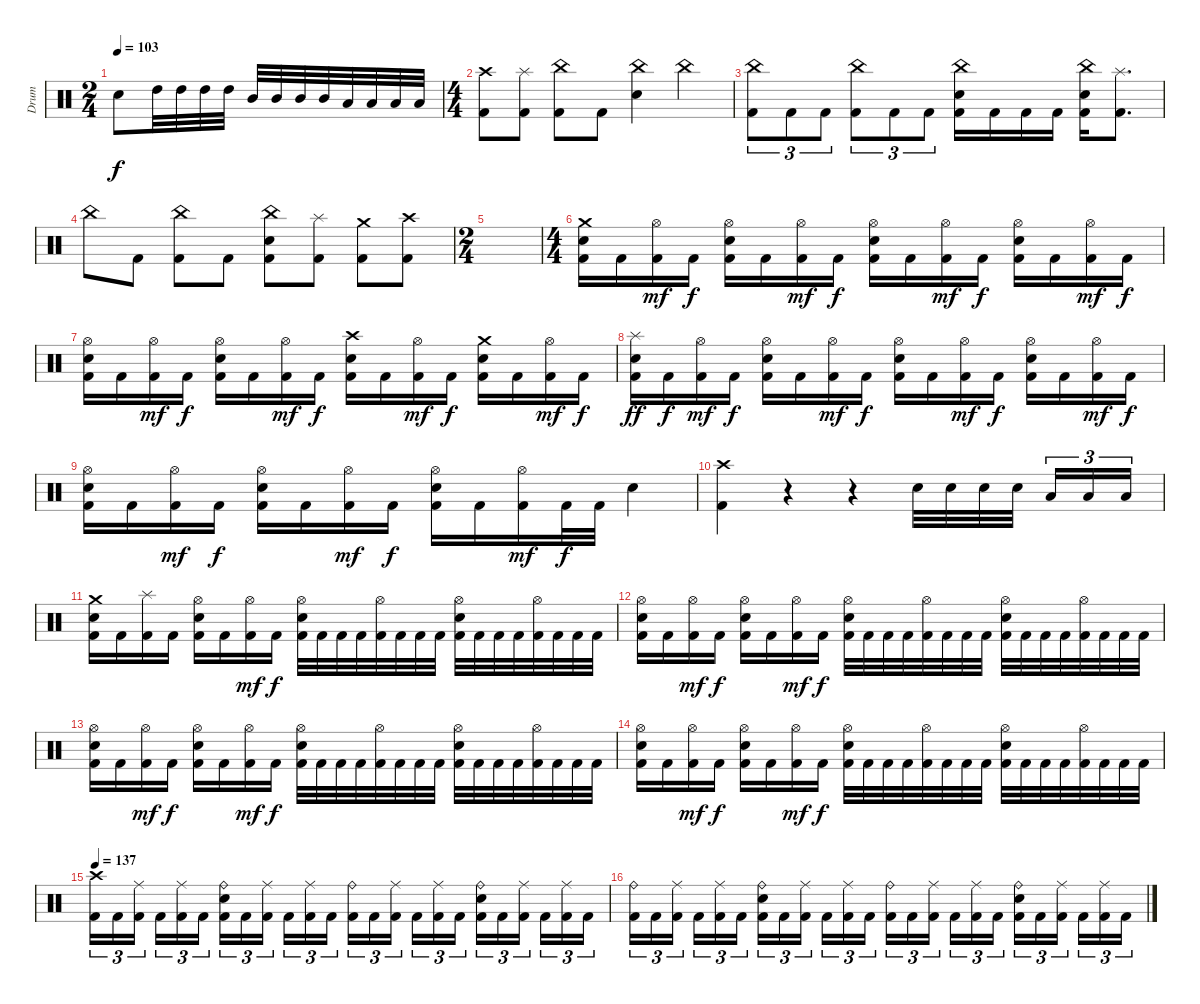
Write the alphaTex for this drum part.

\track ("Drum" "Drum") {instrument percussion}
\staff {score}
\articulation defaults
\ts (2 4)
\tempo 103
\clef neutral
\ks c "Electric Snare (hit)".8{dy f} "High Tom (hit)".32 "High Tom (hit)".32 "High Tom (hit)".32 "High Tom (hit)".32 "Mid Tom (hit)".32 "Mid Tom (hit)".32 "Mid Tom (hit)".32 "Mid Tom (hit)".32 "Low Tom (hit)".32 "Low Tom (hit)".32 "Low Tom (hit)".32 "Low Tom (hit)".32
|
\ts (4 4)
("Crash high (hit)" "Kick (hit) 2").8 ("Splash (hit)" "Kick (hit) 2").8 ("China (hit)" "Kick (hit) 2").8 "Kick (hit) 2".8 ("China (hit)" "Electric Snare (hit)").4 "China (hit)".4 |
("China (hit)" "Kick (hit) 2").8{tu (3 2)} "Kick (hit) 2".8{tu (3 2)} "Kick (hit) 2".8{tu (3 2)} ("China (hit)" "Kick (hit) 2").8{tu (3 2)} "Kick (hit) 2".8{tu (3 2)} "Kick (hit) 2".8{tu (3 2)} ("China (hit)" "Electric Snare (hit)" "Kick (hit) 2").16 "Kick (hit) 2".16 "Kick (hit) 2".16 "Kick (hit) 2".16 ("China (hit)" "Electric Snare (hit)" "Kick (hit) 2").16 ("Splash (hit)" "Kick (hit) 2").8{d} |
"China (hit)".8 "Kick (hit) 2".8 ("China (hit)" "Kick (hit) 2").8 "Kick (hit) 2".8 ("China (hit)" "Electric Snare (hit)" "Kick (hit) 2").8 ("Splash (hit)" "Kick (hit) 2").8 ("Crash medium (hit)" "Kick (hit) 2").8 ("Crash high (hit)" "Kick (hit) 2").8 |
\ts (2 4)
|
\ts (4 4)
("Crash medium (hit)" "Electric Snare (hit)" "Kick (hit) 2").16 "Kick (hit) 2".16 ("Hi-Hat (open)" "Kick (hit) 2").16{dy mf} "Kick (hit) 2".16{dy f} ("Hi-Hat (open)" "Electric Snare (hit)" "Kick (hit) 2").16 "Kick (hit) 2".16 ("Hi-Hat (open)" "Kick (hit) 2").16{dy mf} "Kick (hit) 2".16{dy f} ("Hi-Hat (open)" "Electric Snare (hit)" "Kick (hit) 2").16 "Kick (hit) 2".16 ("Hi-Hat (open)" "Kick (hit) 2").16{dy mf} "Kick (hit) 2".16{dy f} ("Hi-Hat (open)" "Electric Snare (hit)" "Kick (hit) 2").16 "Kick (hit) 2".16 ("Hi-Hat (open)" "Kick (hit) 2").16{dy mf} "Kick (hit) 2".16{dy f} |
("Hi-Hat (open)" "Electric Snare (hit)" "Kick (hit) 2").16 "Kick (hit) 2".16 ("Hi-Hat (open)" "Kick (hit) 2").16{dy mf} "Kick (hit) 2".16{dy f} ("Hi-Hat (open)" "Electric Snare (hit)" "Kick (hit) 2").16 "Kick (hit) 2".16 ("Hi-Hat (open)" "Kick (hit) 2").16{dy mf} "Kick (hit) 2".16{dy f} ("Crash high (hit)" "Electric Snare (hit)" "Kick (hit) 2").16 "Kick (hit) 2".16 ("Hi-Hat (open)" "Kick (hit) 2").16{dy mf} "Kick (hit) 2".16{dy f} ("Crash medium (hit)" "Electric Snare (hit)" "Kick (hit) 2").16 "Kick (hit) 2".16 ("Hi-Hat (open)" "Kick (hit) 2").16{dy mf} "Kick (hit) 2".16{dy f} |
("Splash (hit)" "Electric Snare (hit)" "Kick (hit) 2").16{dy ff} "Kick (hit) 2".16{dy f} ("Hi-Hat (open)" "Kick (hit) 2").16{dy mf} "Kick (hit) 2".16{dy f} ("Hi-Hat (open)" "Electric Snare (hit)" "Kick (hit) 2").16 "Kick (hit) 2".16 ("Hi-Hat (open)" "Kick (hit) 2").16{dy mf} "Kick (hit) 2".16{dy f} ("Hi-Hat (open)" "Electric Snare (hit)" "Kick (hit) 2").16 "Kick (hit) 2".16 ("Hi-Hat (open)" "Kick (hit) 2").16{dy mf} "Kick (hit) 2".16{dy f} ("Hi-Hat (open)" "Electric Snare (hit)" "Kick (hit) 2").16 "Kick (hit) 2".16 ("Hi-Hat (open)" "Kick (hit) 2").16{dy mf} "Kick (hit) 2".16{dy f} |
("Hi-Hat (open)" "Electric Snare (hit)" "Kick (hit) 2").16 "Kick (hit) 2".16 ("Hi-Hat (open)" "Kick (hit) 2").16{dy mf} "Kick (hit) 2".16{dy f} ("Hi-Hat (open)" "Electric Snare (hit)" "Kick (hit) 2").16 "Kick (hit) 2".16 ("Hi-Hat (open)" "Kick (hit) 2").16{dy mf} "Kick (hit) 2".16{dy f} ("Hi-Hat (open)" "Electric Snare (hit)" "Kick (hit) 2").16 "Kick (hit) 2".16 ("Hi-Hat (open)" "Kick (hit) 2").16{dy mf} "Kick (hit) 2".32{dy f} "Kick (hit) 2".32 "Electric Snare (hit)".4 |
("Crash high (hit)" "Kick (hit) 2").4 r.4 r.4 "Electric Snare (hit)".32 "Electric Snare (hit)".32 "Electric Snare (hit)".32 "Electric Snare (hit)".32{beam splitsecondary} "Low Floor Tom (hit)".16{tu (3 2)} "Low Floor Tom (hit)".16{tu (3 2)} "Low Floor Tom (hit)".16{tu (3 2)} |
("Crash medium (hit)" "Electric Snare (hit)" "Kick (hit) 2").16 "Kick (hit) 2".16 ("Splash (hit)" "Kick (hit) 2").16 "Kick (hit) 2".16 ("Hi-Hat (open)" "Electric Snare (hit)" "Kick (hit) 2").16 "Kick (hit) 2".16 ("Hi-Hat (open)" "Kick (hit) 2").16{dy mf} "Kick (hit) 2".16{dy f} ("Hi-Hat (open)" "Electric Snare (hit)" "Kick (hit) 2").32 "Kick (hit) 2".32 "Kick (hit) 2".32 "Kick (hit) 2".32 ("Hi-Hat (open)" "Kick (hit) 2").32 "Kick (hit) 2".32 "Kick (hit) 2".32 "Kick (hit) 2".32 ("Hi-Hat (open)" "Electric Snare (hit)" "Kick (hit) 2").32 "Kick (hit) 2".32 "Kick (hit) 2".32 "Kick (hit) 2".32 ("Hi-Hat (open)" "Kick (hit) 2").32 "Kick (hit) 2".32 "Kick (hit) 2".32 "Kick (hit) 2".32 |
("Hi-Hat (open)" "Electric Snare (hit)" "Kick (hit) 2").16 "Kick (hit) 2".16 ("Hi-Hat (open)" "Kick (hit) 2").16{dy mf} "Kick (hit) 2".16{dy f} ("Hi-Hat (open)" "Electric Snare (hit)" "Kick (hit) 2").16 "Kick (hit) 2".16 ("Hi-Hat (open)" "Kick (hit) 2").16{dy mf} "Kick (hit) 2".16{dy f} ("Hi-Hat (open)" "Electric Snare (hit)" "Kick (hit) 2").32 "Kick (hit) 2".32 "Kick (hit) 2".32 "Kick (hit) 2".32 ("Hi-Hat (open)" "Kick (hit) 2").32 "Kick (hit) 2".32 "Kick (hit) 2".32 "Kick (hit) 2".32 ("Hi-Hat (open)" "Electric Snare (hit)" "Kick (hit) 2").32 "Kick (hit) 2".32 "Kick (hit) 2".32 "Kick (hit) 2".32 ("Hi-Hat (open)" "Kick (hit) 2").32 "Kick (hit) 2".32 "Kick (hit) 2".32 "Kick (hit) 2".32 |
("Hi-Hat (open)" "Electric Snare (hit)" "Kick (hit) 2").16 "Kick (hit) 2".16 ("Hi-Hat (open)" "Kick (hit) 2").16{dy mf} "Kick (hit) 2".16{dy f} ("Hi-Hat (open)" "Electric Snare (hit)" "Kick (hit) 2").16 "Kick (hit) 2".16 ("Hi-Hat (open)" "Kick (hit) 2").16{dy mf} "Kick (hit) 2".16{dy f} ("Hi-Hat (open)" "Electric Snare (hit)" "Kick (hit) 2").32 "Kick (hit) 2".32 "Kick (hit) 2".32 "Kick (hit) 2".32 ("Hi-Hat (open)" "Kick (hit) 2").32 "Kick (hit) 2".32 "Kick (hit) 2".32 "Kick (hit) 2".32 ("Hi-Hat (open)" "Electric Snare (hit)" "Kick (hit) 2").32 "Kick (hit) 2".32 "Kick (hit) 2".32 "Kick (hit) 2".32 ("Hi-Hat (open)" "Kick (hit) 2").32 "Kick (hit) 2".32 "Kick (hit) 2".32 "Kick (hit) 2".32 |
("Hi-Hat (open)" "Electric Snare (hit)" "Kick (hit) 2").16 "Kick (hit) 2".16 ("Hi-Hat (open)" "Kick (hit) 2").16{dy mf} "Kick (hit) 2".16{dy f} ("Hi-Hat (open)" "Electric Snare (hit)" "Kick (hit) 2").16 "Kick (hit) 2".16 ("Hi-Hat (open)" "Kick (hit) 2").16{dy mf} "Kick (hit) 2".16{dy f} ("Hi-Hat (open)" "Electric Snare (hit)" "Kick (hit) 2").32 "Kick (hit) 2".32 "Kick (hit) 2".32 "Kick (hit) 2".32 ("Hi-Hat (open)" "Kick (hit) 2").32 "Kick (hit) 2".32 "Kick (hit) 2".32 "Kick (hit) 2".32 ("Hi-Hat (open)" "Electric Snare (hit)" "Kick (hit) 2").32 "Kick (hit) 2".32 "Kick (hit) 2".32 "Kick (hit) 2".32 ("Hi-Hat (open)" "Kick (hit) 2").32 "Kick (hit) 2".32 "Kick (hit) 2".32 "Kick (hit) 2".32 |
\tempo 137
("Crash high (hit)" "Kick (hit) 2").16{tu (3 2)} "Kick (hit) 2".16{tu (3 2)} ("Ride (middle)" "Kick (hit) 2").16{tu (3 2) beam splitsecondary} "Kick (hit) 2".16{tu (3 2)} ("Ride (middle)" "Kick (hit) 2").16{tu (3 2)} "Kick (hit) 2".16{tu (3 2)} ("Ride (bell)" "Electric Snare (hit)" "Kick (hit) 2").16{tu (3 2)} "Kick (hit) 2".16{tu (3 2)} ("Ride (middle)" "Kick (hit) 2").16{tu (3 2) beam splitsecondary} "Kick (hit) 2".16{tu (3 2)} ("Ride (middle)" "Kick (hit) 2").16{tu (3 2)} "Kick (hit) 2".16{tu (3 2)} ("Ride (bell)" "Kick (hit) 2").16{tu (3 2)} "Kick (hit) 2".16{tu (3 2)} ("Ride (middle)" "Kick (hit) 2").16{tu (3 2) beam splitsecondary} "Kick (hit) 2".16{tu (3 2)} ("Ride (middle)" "Kick (hit) 2").16{tu (3 2)} "Kick (hit) 2".16{tu (3 2)} ("Ride (bell)" "Electric Snare (hit)" "Kick (hit) 2").16{tu (3 2)} "Kick (hit) 2".16{tu (3 2)} ("Ride (middle)" "Kick (hit) 2").16{tu (3 2) beam splitsecondary} "Kick (hit) 2".16{tu (3 2)} ("Ride (middle)" "Kick (hit) 2").16{tu (3 2)} "Kick (hit) 2".16{tu (3 2)} |
("Ride (bell)" "Kick (hit) 2").16{tu (3 2)} "Kick (hit) 2".16{tu (3 2)} ("Ride (middle)" "Kick (hit) 2").16{tu (3 2) beam splitsecondary} "Kick (hit) 2".16{tu (3 2)} ("Ride (middle)" "Kick (hit) 2").16{tu (3 2)} "Kick (hit) 2".16{tu (3 2)} ("Ride (bell)" "Electric Snare (hit)" "Kick (hit) 2").16{tu (3 2)} "Kick (hit) 2".16{tu (3 2)} ("Ride (middle)" "Kick (hit) 2").16{tu (3 2) beam splitsecondary} "Kick (hit) 2".16{tu (3 2)} ("Ride (middle)" "Kick (hit) 2").16{tu (3 2)} "Kick (hit) 2".16{tu (3 2)} ("Ride (bell)" "Kick (hit) 2").16{tu (3 2)} "Kick (hit) 2".16{tu (3 2)} ("Ride (middle)" "Kick (hit) 2").16{tu (3 2) beam splitsecondary} "Kick (hit) 2".16{tu (3 2)} ("Ride (middle)" "Kick (hit) 2").16{tu (3 2)} "Kick (hit) 2".16{tu (3 2)} ("Ride (bell)" "Electric Snare (hit)" "Kick (hit) 2").16{tu (3 2)} "Kick (hit) 2".16{tu (3 2)} ("Ride (middle)" "Kick (hit) 2").16{tu (3 2) beam splitsecondary} "Kick (hit) 2".16{tu (3 2)} ("Ride (middle)" "Kick (hit) 2").16{tu (3 2)} "Kick (hit) 2".16{tu (3 2)}
